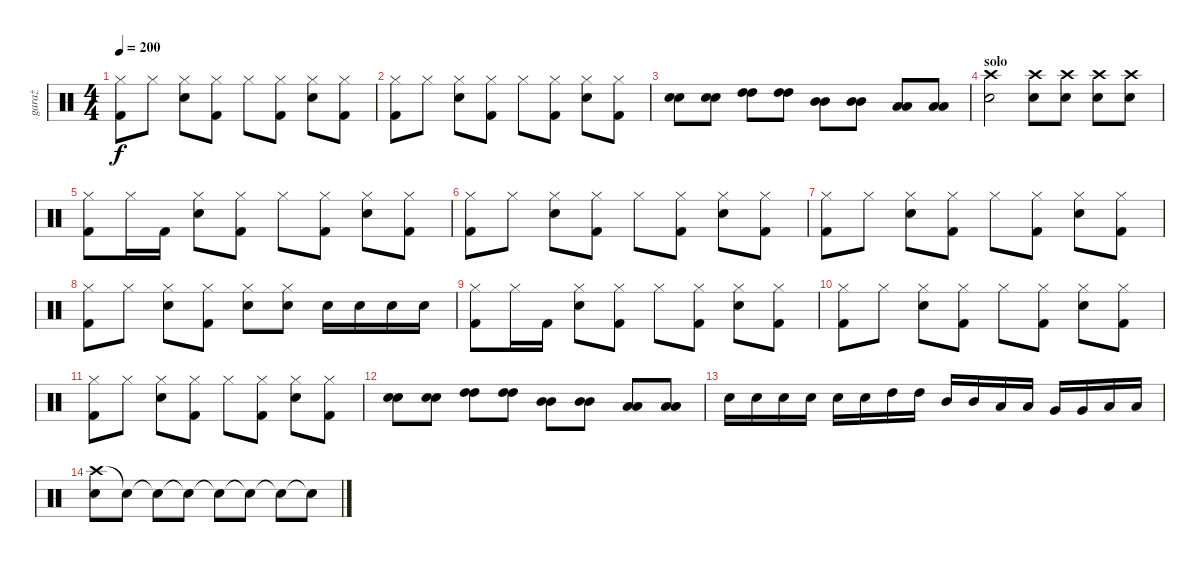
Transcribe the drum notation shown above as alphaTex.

\track ("garaż" "garaż") {instrument percussion}
\staff {score}
\articulation defaults
\ts (4 4)
\tempo 200
\clef neutral
\ks c
("Hi-Hat (closed)" "Kick (hit) 2").8{dy f} "Hi-Hat (closed)".8 ("Hi-Hat (closed)" "Snare (hit) 2").8 ("Hi-Hat (closed)" "Kick (hit) 2").8 "Hi-Hat (closed)".8 ("Hi-Hat (closed)" "Kick (hit) 2").8 ("Hi-Hat (closed)" "Snare (hit) 2").8 ("Hi-Hat (closed)" "Kick (hit) 2").8 |
("Hi-Hat (closed)" "Kick (hit) 2").8 "Hi-Hat (closed)".8 ("Hi-Hat (closed)" "Snare (hit) 2").8 ("Hi-Hat (closed)" "Kick (hit) 2").8 "Hi-Hat (closed)".8 ("Hi-Hat (closed)" "Kick (hit) 2").8 ("Hi-Hat (closed)" "Snare (hit) 2").8 ("Hi-Hat (closed)" "Kick (hit) 2").8 |
("Snare (hit) 2" "Snare (hit) 2").8 ("Snare (hit) 2" "Snare (hit) 2").8 ("High Tom (hit)" "High Tom (hit)").8 ("High Tom (hit)" "High Tom (hit)").8 ("Mid Tom (hit)" "Mid Tom (hit)").8 ("Mid Tom (hit)" "Mid Tom (hit)").8 ("Low Tom (hit)" "Low Tom (hit)").8 ("Low Tom (hit)" "Low Tom (hit)").8 |
\section ("" "solo")
("Crash high (hit)" "Snare (hit) 2").2 ("Crash high (hit)" "Snare (hit) 2").8 ("Crash high (hit)" "Snare (hit) 2").8 ("Crash high (hit)" "Snare (hit) 2").8 ("Crash high (hit)" "Snare (hit) 2").8 |
("Hi-Hat (closed)" "Kick (hit) 2").8 "Hi-Hat (closed)".16 "Kick (hit) 2".16 ("Hi-Hat (closed)" "Snare (hit) 2").8 ("Hi-Hat (closed)" "Kick (hit) 2").8 "Hi-Hat (closed)".8 ("Hi-Hat (closed)" "Kick (hit) 2").8 ("Hi-Hat (closed)" "Snare (hit) 2").8 ("Hi-Hat (closed)" "Kick (hit) 2").8 |
("Hi-Hat (closed)" "Kick (hit) 2").8 "Hi-Hat (closed)".8 ("Hi-Hat (closed)" "Snare (hit) 2").8 ("Hi-Hat (closed)" "Kick (hit) 2").8 "Hi-Hat (closed)".8 ("Hi-Hat (closed)" "Kick (hit) 2").8 ("Hi-Hat (closed)" "Snare (hit) 2").8 ("Hi-Hat (closed)" "Kick (hit) 2").8 |
("Hi-Hat (closed)" "Kick (hit) 2").8 "Hi-Hat (closed)".8 ("Hi-Hat (closed)" "Snare (hit) 2").8 ("Hi-Hat (closed)" "Kick (hit) 2").8 "Hi-Hat (closed)".8 ("Hi-Hat (closed)" "Kick (hit) 2").8 ("Hi-Hat (closed)" "Snare (hit) 2").8 ("Hi-Hat (closed)" "Kick (hit) 2").8 |
("Hi-Hat (closed)" "Kick (hit) 2").8 "Hi-Hat (closed)".8 ("Hi-Hat (closed)" "Snare (hit) 2").8 ("Hi-Hat (closed)" "Kick (hit) 2").8 ("Hi-Hat (closed)" "Snare (hit) 2").8 ("Hi-Hat (closed)" "Snare (hit) 2").8 "Snare (hit) 2".16 "Snare (hit) 2".16 "Snare (hit) 2".16 "Snare (hit) 2".16 |
("Hi-Hat (closed)" "Kick (hit) 2").8 "Hi-Hat (closed)".16 "Kick (hit) 2".16 ("Hi-Hat (closed)" "Snare (hit) 2").8 ("Hi-Hat (closed)" "Kick (hit) 2").8 "Hi-Hat (closed)".8 ("Hi-Hat (closed)" "Kick (hit) 2").8 ("Hi-Hat (closed)" "Snare (hit) 2").8 ("Hi-Hat (closed)" "Kick (hit) 2").8 |
("Hi-Hat (closed)" "Kick (hit) 2").8 "Hi-Hat (closed)".8 ("Hi-Hat (closed)" "Snare (hit) 2").8 ("Hi-Hat (closed)" "Kick (hit) 2").8 "Hi-Hat (closed)".8 ("Hi-Hat (closed)" "Kick (hit) 2").8 ("Hi-Hat (closed)" "Snare (hit) 2").8 ("Hi-Hat (closed)" "Kick (hit) 2").8 |
("Hi-Hat (closed)" "Kick (hit) 2").8 "Hi-Hat (closed)".8 ("Hi-Hat (closed)" "Snare (hit) 2").8 ("Hi-Hat (closed)" "Kick (hit) 2").8 "Hi-Hat (closed)".8 ("Hi-Hat (closed)" "Kick (hit) 2").8 ("Hi-Hat (closed)" "Snare (hit) 2").8 ("Hi-Hat (closed)" "Kick (hit) 2").8 |
("Snare (hit) 2" "Snare (hit) 2").8 ("Snare (hit) 2" "Snare (hit) 2").8 ("High Tom (hit)" "High Tom (hit)").8 ("High Tom (hit)" "High Tom (hit)").8 ("Mid Tom (hit)" "Mid Tom (hit)").8 ("Mid Tom (hit)" "Mid Tom (hit)").8 ("Low Tom (hit)" "Low Tom (hit)").8 ("Low Tom (hit)" "Low Tom (hit)").8 |
"Snare (hit) 2".16 "Snare (hit) 2".16 "Snare (hit) 2".16 "Snare (hit) 2".16 "Snare (hit) 2".16 "Snare (hit) 2".16 "High Tom (hit)".16 "High Tom (hit)".16 "Mid Tom (hit)".16 "Mid Tom (hit)".16 "Low Tom (hit)".16 "Low Tom (hit)".16 "Very Low Tom (hit)".16 "Very Low Tom (hit)".16 "Low Floor Tom (hit)".16 "Low Floor Tom (hit)".16 |
("Crash high (hit)" "Snare (hit) 2").8 "Snare (hit)"{t}.8 "Snare (hit)"{t}.8 "Snare (hit)"{t}.8 "Snare (hit)"{t}.8 "Snare (hit)"{t}.8 "Snare (hit)"{t}.8 "Snare (hit)"{t}.8
